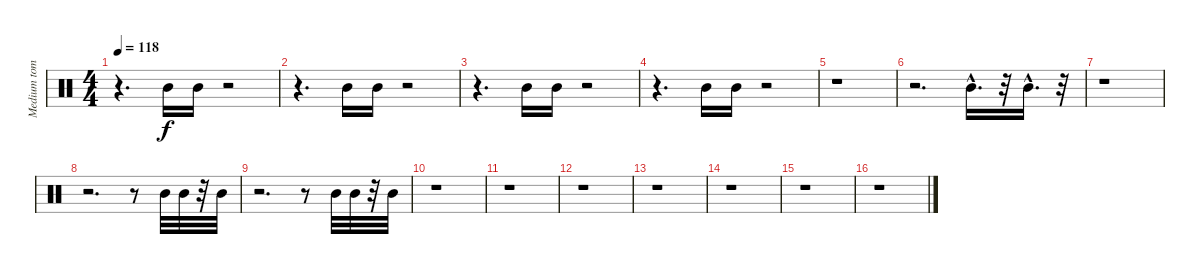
\track ("Medium tom          " "Medium tom") {instrument percussion}
\staff {score}
\articulation defaults
\ts (4 4)
\tempo 118
\clef neutral
\ks c
r.4{d dy f} "Mid Tom (hit)".16 "Mid Tom (hit)".16 r.2 |
r.4{d} "Mid Tom (hit)".16 "Mid Tom (hit)".16 r.2 |
r.4{d} "Mid Tom (hit)".16 "Mid Tom (hit)".16 r.2 |
r.4{d} "Mid Tom (hit)".16 "Mid Tom (hit)".16 r.2 |
r.1 |
r.2{d} "Mid Tom (hit)"{hac}.16{d} r.32 "Mid Tom (hit)"{hac}.16{d} r.32 |
r.1 |
r.2{d} r.8 "Mid Tom (hit)".32 "Mid Tom (hit)".32 r.32 "Mid Tom (hit)".32 |
r.2{d} r.8 "Mid Tom (hit)".32 "Mid Tom (hit)".32 r.32 "Mid Tom (hit)".32 |
r.1 |
r.1 |
r.1 |
r.1 |
r.1 |
r.1 |
r.1
